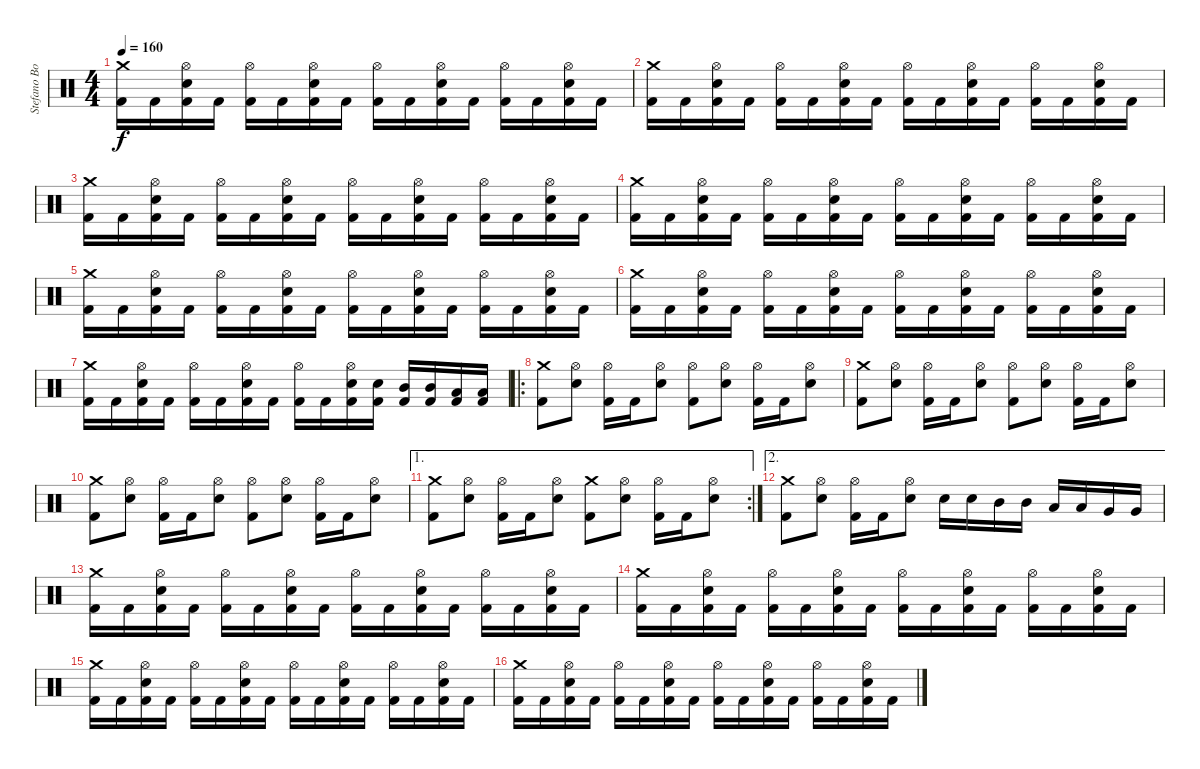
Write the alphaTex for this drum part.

\track ("Stefano Bonini" "Stefano Bo") {instrument percussion}
\staff {score}
\articulation defaults
\ts (4 4)
\tempo 160
\clef neutral
\ks c
("Crash medium (hit)" "Kick (hit) 2").16{dy f} "Kick (hit) 2".16 ("Hi-Hat (open)" "Snare (hit) 2" "Kick (hit) 2").16 "Kick (hit) 2".16 ("Hi-Hat (open)" "Kick (hit) 2").16 "Kick (hit) 2".16 ("Hi-Hat (open)" "Snare (hit) 2" "Kick (hit) 2").16 "Kick (hit) 2".16 ("Hi-Hat (open)" "Kick (hit) 2").16 "Kick (hit) 2".16 ("Hi-Hat (open)" "Snare (hit) 2" "Kick (hit) 2").16 "Kick (hit) 2".16 ("Hi-Hat (open)" "Kick (hit) 2").16 "Kick (hit) 2".16 ("Hi-Hat (open)" "Snare (hit) 2" "Kick (hit) 2").16 "Kick (hit) 2".16 |
("Crash medium (hit)" "Kick (hit) 2").16 "Kick (hit) 2".16 ("Hi-Hat (open)" "Snare (hit) 2" "Kick (hit) 2").16 "Kick (hit) 2".16 ("Hi-Hat (open)" "Kick (hit) 2").16 "Kick (hit) 2".16 ("Hi-Hat (open)" "Snare (hit) 2" "Kick (hit) 2").16 "Kick (hit) 2".16 ("Hi-Hat (open)" "Kick (hit) 2").16 "Kick (hit) 2".16 ("Hi-Hat (open)" "Snare (hit) 2" "Kick (hit) 2").16 "Kick (hit) 2".16 ("Hi-Hat (open)" "Kick (hit) 2").16 "Kick (hit) 2".16 ("Hi-Hat (open)" "Snare (hit) 2" "Kick (hit) 2").16 "Kick (hit) 2".16 |
("Crash medium (hit)" "Kick (hit) 2").16 "Kick (hit) 2".16 ("Hi-Hat (open)" "Snare (hit) 2" "Kick (hit) 2").16 "Kick (hit) 2".16 ("Hi-Hat (open)" "Kick (hit) 2").16 "Kick (hit) 2".16 ("Hi-Hat (open)" "Snare (hit) 2" "Kick (hit) 2").16 "Kick (hit) 2".16 ("Hi-Hat (open)" "Kick (hit) 2").16 "Kick (hit) 2".16 ("Hi-Hat (open)" "Snare (hit) 2" "Kick (hit) 2").16 "Kick (hit) 2".16 ("Hi-Hat (open)" "Kick (hit) 2").16 "Kick (hit) 2".16 ("Hi-Hat (open)" "Snare (hit) 2" "Kick (hit) 2").16 "Kick (hit) 2".16 |
("Crash medium (hit)" "Kick (hit) 2").16 "Kick (hit) 2".16 ("Hi-Hat (open)" "Snare (hit) 2" "Kick (hit) 2").16 "Kick (hit) 2".16 ("Hi-Hat (open)" "Kick (hit) 2").16 "Kick (hit) 2".16 ("Hi-Hat (open)" "Snare (hit) 2" "Kick (hit) 2").16 "Kick (hit) 2".16 ("Hi-Hat (open)" "Kick (hit) 2").16 "Kick (hit) 2".16 ("Hi-Hat (open)" "Snare (hit) 2" "Kick (hit) 2").16 "Kick (hit) 2".16 ("Hi-Hat (open)" "Kick (hit) 2").16 "Kick (hit) 2".16 ("Hi-Hat (open)" "Snare (hit) 2" "Kick (hit) 2").16 "Kick (hit) 2".16 |
("Crash medium (hit)" "Kick (hit) 2").16 "Kick (hit) 2".16 ("Hi-Hat (open)" "Snare (hit) 2" "Kick (hit) 2").16 "Kick (hit) 2".16 ("Hi-Hat (open)" "Kick (hit) 2").16 "Kick (hit) 2".16 ("Hi-Hat (open)" "Snare (hit) 2" "Kick (hit) 2").16 "Kick (hit) 2".16 ("Hi-Hat (open)" "Kick (hit) 2").16 "Kick (hit) 2".16 ("Hi-Hat (open)" "Snare (hit) 2" "Kick (hit) 2").16 "Kick (hit) 2".16 ("Hi-Hat (open)" "Kick (hit) 2").16 "Kick (hit) 2".16 ("Hi-Hat (open)" "Snare (hit) 2" "Kick (hit) 2").16 "Kick (hit) 2".16 |
("Crash medium (hit)" "Kick (hit) 2").16 "Kick (hit) 2".16 ("Hi-Hat (open)" "Snare (hit) 2" "Kick (hit) 2").16 "Kick (hit) 2".16 ("Hi-Hat (open)" "Kick (hit) 2").16 "Kick (hit) 2".16 ("Hi-Hat (open)" "Snare (hit) 2" "Kick (hit) 2").16 "Kick (hit) 2".16 ("Hi-Hat (open)" "Kick (hit) 2").16 "Kick (hit) 2".16 ("Hi-Hat (open)" "Snare (hit) 2" "Kick (hit) 2").16 "Kick (hit) 2".16 ("Hi-Hat (open)" "Kick (hit) 2").16 "Kick (hit) 2".16 ("Hi-Hat (open)" "Snare (hit) 2" "Kick (hit) 2").16 "Kick (hit) 2".16 |
("Crash medium (hit)" "Kick (hit) 2").16 "Kick (hit) 2".16 ("Hi-Hat (open)" "Snare (hit) 2" "Kick (hit) 2").16 "Kick (hit) 2".16 ("Hi-Hat (open)" "Kick (hit) 2").16 "Kick (hit) 2".16 ("Hi-Hat (open)" "Snare (hit) 2" "Kick (hit) 2").16 "Kick (hit) 2".16 ("Hi-Hat (open)" "Kick (hit) 2").16 "Kick (hit) 2".16 ("Hi-Hat (open)" "Snare (hit) 2" "Kick (hit) 2").16 ("Snare (hit) 2" "Kick (hit) 2").16 ("Mid Tom (hit)" "Kick (hit) 2").16 ("Mid Tom (hit)" "Kick (hit) 2").16 ("Low Tom (hit)" "Kick (hit) 2").16 ("Low Tom (hit)" "Kick (hit) 2").16 |
\ro
("Crash medium (hit)" "Kick (hit) 2").8 ("Hi-Hat (open)" "Snare (hit) 2").8 ("Hi-Hat (open)" "Kick (hit) 2").16 "Kick (hit) 2".16 ("Hi-Hat (open)" "Snare (hit) 2").8 ("Hi-Hat (open)" "Kick (hit) 2").8 ("Hi-Hat (open)" "Snare (hit) 2").8 ("Hi-Hat (open)" "Kick (hit) 2").16 "Kick (hit) 2".16 ("Hi-Hat (open)" "Snare (hit) 2").8 |
("Crash medium (hit)" "Kick (hit) 2").8 ("Hi-Hat (open)" "Snare (hit) 2").8 ("Hi-Hat (open)" "Kick (hit) 2").16 "Kick (hit) 2".16 ("Hi-Hat (open)" "Snare (hit) 2").8 ("Hi-Hat (open)" "Kick (hit) 2").8 ("Hi-Hat (open)" "Snare (hit) 2").8 ("Hi-Hat (open)" "Kick (hit) 2").16 "Kick (hit) 2".16 ("Hi-Hat (open)" "Snare (hit) 2").8 |
("Crash medium (hit)" "Kick (hit) 2").8 ("Hi-Hat (open)" "Snare (hit) 2").8 ("Hi-Hat (open)" "Kick (hit) 2").16 "Kick (hit) 2".16 ("Hi-Hat (open)" "Snare (hit) 2").8 ("Hi-Hat (open)" "Kick (hit) 2").8 ("Hi-Hat (open)" "Snare (hit) 2").8 ("Hi-Hat (open)" "Kick (hit) 2").16 "Kick (hit) 2".16 ("Hi-Hat (open)" "Snare (hit) 2").8 |
\ae 1
\rc 2
("Crash medium (hit)" "Kick (hit) 2").8 ("Hi-Hat (open)" "Snare (hit) 2").8 ("Hi-Hat (open)" "Kick (hit) 2").16 "Kick (hit) 2".16 ("Hi-Hat (open)" "Snare (hit) 2").8 ("Crash medium (hit)" "Kick (hit) 2").8 ("Hi-Hat (open)" "Snare (hit) 2").8 ("Hi-Hat (open)" "Kick (hit) 2").16 "Kick (hit) 2".16 ("Hi-Hat (open)" "Snare (hit) 2").8 |
\ae 2
("Crash medium (hit)" "Kick (hit) 2").8 ("Hi-Hat (open)" "Snare (hit) 2").8 ("Hi-Hat (open)" "Kick (hit) 2").16 "Kick (hit) 2".16 ("Hi-Hat (open)" "Snare (hit) 2").8 "Snare (hit) 2".16 "Snare (hit) 2".16 "Mid Tom (hit)".16 "Mid Tom (hit)".16 "Low Tom (hit)".16 "Low Tom (hit)".16 "Very Low Tom (hit)".16 "Very Low Tom (hit)".16 |
("Crash medium (hit)" "Kick (hit) 2").16 "Kick (hit) 2".16 ("Hi-Hat (open)" "Snare (hit) 2" "Kick (hit) 2").16 "Kick (hit) 2".16 ("Hi-Hat (open)" "Kick (hit) 2").16 "Kick (hit) 2".16 ("Hi-Hat (open)" "Snare (hit) 2" "Kick (hit) 2").16 "Kick (hit) 2".16 ("Hi-Hat (open)" "Kick (hit) 2").16 "Kick (hit) 2".16 ("Hi-Hat (open)" "Snare (hit) 2" "Kick (hit) 2").16 "Kick (hit) 2".16 ("Hi-Hat (open)" "Kick (hit) 2").16 "Kick (hit) 2".16 ("Hi-Hat (open)" "Snare (hit) 2" "Kick (hit) 2").16 "Kick (hit) 2".16 |
("Crash medium (hit)" "Kick (hit) 2").16 "Kick (hit) 2".16 ("Hi-Hat (open)" "Snare (hit) 2" "Kick (hit) 2").16 "Kick (hit) 2".16 ("Hi-Hat (open)" "Kick (hit) 2").16 "Kick (hit) 2".16 ("Hi-Hat (open)" "Snare (hit) 2" "Kick (hit) 2").16 "Kick (hit) 2".16 ("Hi-Hat (open)" "Kick (hit) 2").16 "Kick (hit) 2".16 ("Hi-Hat (open)" "Snare (hit) 2" "Kick (hit) 2").16 "Kick (hit) 2".16 ("Hi-Hat (open)" "Kick (hit) 2").16 "Kick (hit) 2".16 ("Hi-Hat (open)" "Snare (hit) 2" "Kick (hit) 2").16 "Kick (hit) 2".16 |
("Crash medium (hit)" "Kick (hit) 2").16 "Kick (hit) 2".16 ("Hi-Hat (open)" "Snare (hit) 2" "Kick (hit) 2").16 "Kick (hit) 2".16 ("Hi-Hat (open)" "Kick (hit) 2").16 "Kick (hit) 2".16 ("Hi-Hat (open)" "Snare (hit) 2" "Kick (hit) 2").16 "Kick (hit) 2".16 ("Hi-Hat (open)" "Kick (hit) 2").16 "Kick (hit) 2".16 ("Hi-Hat (open)" "Snare (hit) 2" "Kick (hit) 2").16 "Kick (hit) 2".16 ("Hi-Hat (open)" "Kick (hit) 2").16 "Kick (hit) 2".16 ("Hi-Hat (open)" "Snare (hit) 2" "Kick (hit) 2").16 "Kick (hit) 2".16 |
("Crash medium (hit)" "Kick (hit) 2").16 "Kick (hit) 2".16 ("Hi-Hat (open)" "Snare (hit) 2" "Kick (hit) 2").16 "Kick (hit) 2".16 ("Hi-Hat (open)" "Kick (hit) 2").16 "Kick (hit) 2".16 ("Hi-Hat (open)" "Snare (hit) 2" "Kick (hit) 2").16 "Kick (hit) 2".16 ("Hi-Hat (open)" "Kick (hit) 2").16 "Kick (hit) 2".16 ("Hi-Hat (open)" "Snare (hit) 2" "Kick (hit) 2").16 "Kick (hit) 2".16 ("Hi-Hat (open)" "Kick (hit) 2").16 "Kick (hit) 2".16 ("Hi-Hat (open)" "Snare (hit) 2" "Kick (hit) 2").16 "Kick (hit) 2".16
